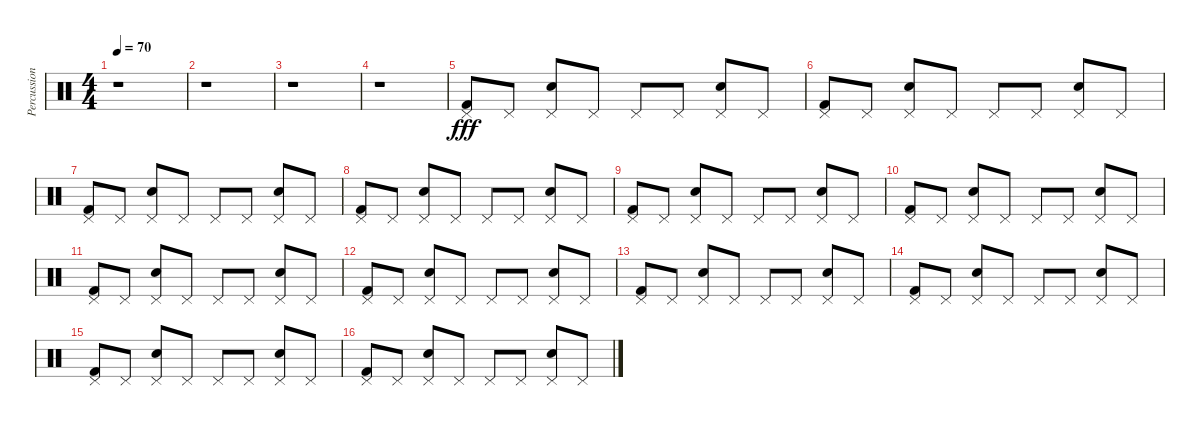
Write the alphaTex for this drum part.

\track ("Percussions" "Percussion") {instrument percussion}
\staff {score}
\articulation defaults
\ts (4 4)
\tempo 70
\clef neutral
\ks c
r.1{dy fff} |
r.1 |
r.1 |
r.1 |
("Pedal Hi-Hat (hit)" "Kick (hit) 2").8 "Pedal Hi-Hat (hit)".8 ("Pedal Hi-Hat (hit)" "Electric Snare (hit)").8 "Pedal Hi-Hat (hit)".8 "Pedal Hi-Hat (hit)".8 "Pedal Hi-Hat (hit)".8 ("Pedal Hi-Hat (hit)" "Electric Snare (hit)").8 "Pedal Hi-Hat (hit)".8 |
("Pedal Hi-Hat (hit)" "Kick (hit) 2").8 "Pedal Hi-Hat (hit)".8 ("Pedal Hi-Hat (hit)" "Electric Snare (hit)").8 "Pedal Hi-Hat (hit)".8 "Pedal Hi-Hat (hit)".8 "Pedal Hi-Hat (hit)".8 ("Pedal Hi-Hat (hit)" "Electric Snare (hit)").8 "Pedal Hi-Hat (hit)".8 |
("Pedal Hi-Hat (hit)" "Kick (hit) 2").8 "Pedal Hi-Hat (hit)".8 ("Pedal Hi-Hat (hit)" "Electric Snare (hit)").8 "Pedal Hi-Hat (hit)".8 "Pedal Hi-Hat (hit)".8 "Pedal Hi-Hat (hit)".8 ("Pedal Hi-Hat (hit)" "Electric Snare (hit)").8 "Pedal Hi-Hat (hit)".8 |
("Pedal Hi-Hat (hit)" "Kick (hit) 2").8 "Pedal Hi-Hat (hit)".8 ("Pedal Hi-Hat (hit)" "Electric Snare (hit)").8 "Pedal Hi-Hat (hit)".8 "Pedal Hi-Hat (hit)".8 "Pedal Hi-Hat (hit)".8 ("Pedal Hi-Hat (hit)" "Electric Snare (hit)").8 "Pedal Hi-Hat (hit)".8 |
("Pedal Hi-Hat (hit)" "Kick (hit) 2").8 "Pedal Hi-Hat (hit)".8 ("Pedal Hi-Hat (hit)" "Electric Snare (hit)").8 "Pedal Hi-Hat (hit)".8 "Pedal Hi-Hat (hit)".8 "Pedal Hi-Hat (hit)".8 ("Pedal Hi-Hat (hit)" "Electric Snare (hit)").8 "Pedal Hi-Hat (hit)".8 |
("Pedal Hi-Hat (hit)" "Kick (hit) 2").8 "Pedal Hi-Hat (hit)".8 ("Pedal Hi-Hat (hit)" "Electric Snare (hit)").8 "Pedal Hi-Hat (hit)".8 "Pedal Hi-Hat (hit)".8 "Pedal Hi-Hat (hit)".8 ("Pedal Hi-Hat (hit)" "Electric Snare (hit)").8 "Pedal Hi-Hat (hit)".8 |
("Pedal Hi-Hat (hit)" "Kick (hit) 2").8 "Pedal Hi-Hat (hit)".8 ("Pedal Hi-Hat (hit)" "Electric Snare (hit)").8 "Pedal Hi-Hat (hit)".8 "Pedal Hi-Hat (hit)".8 "Pedal Hi-Hat (hit)".8 ("Pedal Hi-Hat (hit)" "Electric Snare (hit)").8 "Pedal Hi-Hat (hit)".8 |
("Pedal Hi-Hat (hit)" "Kick (hit) 2").8 "Pedal Hi-Hat (hit)".8 ("Pedal Hi-Hat (hit)" "Electric Snare (hit)").8 "Pedal Hi-Hat (hit)".8 "Pedal Hi-Hat (hit)".8 "Pedal Hi-Hat (hit)".8 ("Pedal Hi-Hat (hit)" "Electric Snare (hit)").8 "Pedal Hi-Hat (hit)".8 |
("Pedal Hi-Hat (hit)" "Kick (hit) 2").8 "Pedal Hi-Hat (hit)".8 ("Pedal Hi-Hat (hit)" "Electric Snare (hit)").8 "Pedal Hi-Hat (hit)".8 "Pedal Hi-Hat (hit)".8 "Pedal Hi-Hat (hit)".8 ("Pedal Hi-Hat (hit)" "Electric Snare (hit)").8 "Pedal Hi-Hat (hit)".8 |
("Pedal Hi-Hat (hit)" "Kick (hit) 2").8 "Pedal Hi-Hat (hit)".8 ("Pedal Hi-Hat (hit)" "Electric Snare (hit)").8 "Pedal Hi-Hat (hit)".8 "Pedal Hi-Hat (hit)".8 "Pedal Hi-Hat (hit)".8 ("Pedal Hi-Hat (hit)" "Electric Snare (hit)").8 "Pedal Hi-Hat (hit)".8 |
("Pedal Hi-Hat (hit)" "Kick (hit) 2").8 "Pedal Hi-Hat (hit)".8 ("Pedal Hi-Hat (hit)" "Electric Snare (hit)").8 "Pedal Hi-Hat (hit)".8 "Pedal Hi-Hat (hit)".8 "Pedal Hi-Hat (hit)".8 ("Pedal Hi-Hat (hit)" "Electric Snare (hit)").8 "Pedal Hi-Hat (hit)".8 |
("Pedal Hi-Hat (hit)" "Kick (hit) 2").8 "Pedal Hi-Hat (hit)".8 ("Pedal Hi-Hat (hit)" "Electric Snare (hit)").8 "Pedal Hi-Hat (hit)".8 "Pedal Hi-Hat (hit)".8 "Pedal Hi-Hat (hit)".8 ("Pedal Hi-Hat (hit)" "Electric Snare (hit)").8 "Pedal Hi-Hat (hit)".8
